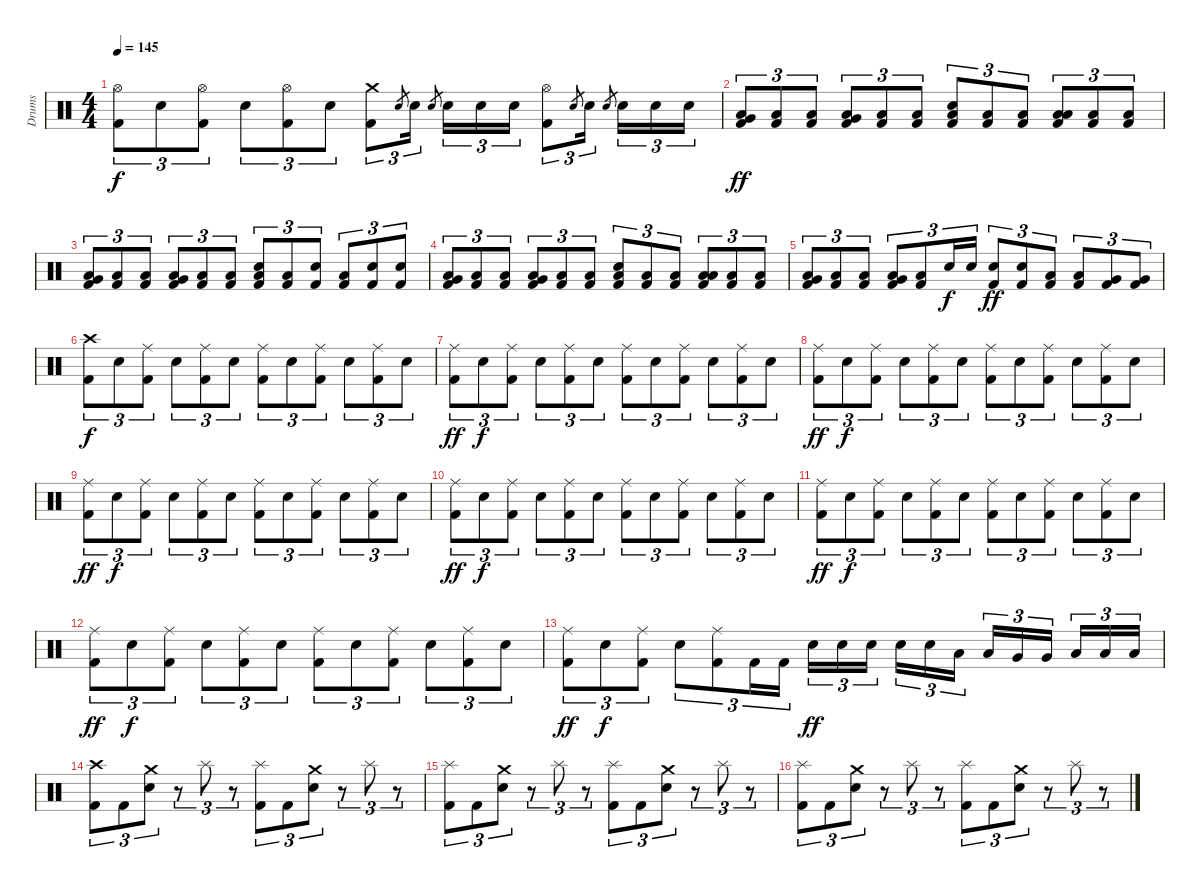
\track ("Drums" "Drums") {instrument percussion}
\staff {score}
\articulation defaults
\ts (4 4)
\tempo 145
\clef neutral
\ks c
("Hi-Hat (open)" "Kick (hit) 2").8{tu (3 2) dy f} "Electric Snare (hit)".8{tu (3 2)} ("Hi-Hat (open)" "Kick (hit) 2").8{tu (3 2)} "Electric Snare (hit)".8{tu (3 2)} ("Hi-Hat (open)" "Kick (hit) 2").8{tu (3 2)} "Electric Snare (hit)".8{tu (3 2)} ("Crash medium (hit)" "Kick (hit) 2").8{tu (3 2)} "Electric Snare (hit)".8{gr} "Electric Snare (hit)".16{tu (3 2)} "Electric Snare (hit)".8{gr beam splitsecondary} "Electric Snare (hit)".16{tu (3 2)} "Electric Snare (hit)".16{tu (3 2)} "Electric Snare (hit)".16{tu (3 2)} ("Hi-Hat (open)" "Kick (hit) 2").8{tu (3 2)} "Electric Snare (hit)".8{gr} "Electric Snare (hit)".16{tu (3 2)} "Electric Snare (hit)".8{gr beam splitsecondary} "Electric Snare (hit)".16{tu (3 2)} "Electric Snare (hit)".16{tu (3 2)} "Electric Snare (hit)".16{tu (3 2)} |
("Low Tom (hit)" "Very Low Tom (hit)" "Kick (hit) 2").8{tu (3 2) dy ff} ("Low Floor Tom (hit)" "Kick (hit) 2").8{tu (3 2)} ("Low Floor Tom (hit)" "Kick (hit) 2").8{tu (3 2)} ("Low Floor Tom (hit)" "Very Low Tom (hit)" "Kick (hit) 2").8{tu (3 2)} ("Low Floor Tom (hit)" "Kick (hit) 2").8{tu (3 2)} ("Low Floor Tom (hit)" "Kick (hit) 2").8{tu (3 2)} ("Low Floor Tom (hit)" "Electric Snare (hit)" "Kick (hit) 2").8{tu (3 2)} ("Low Floor Tom (hit)" "Kick (hit) 2").8{tu (3 2)} ("Low Floor Tom (hit)" "Kick (hit) 2").8{tu (3 2)} ("Low Floor Tom (hit)" "Low Floor Tom (hit)" "Kick (hit) 2").8{tu (3 2)} ("Low Floor Tom (hit)" "Kick (hit) 2").8{tu (3 2)} ("Low Floor Tom (hit)" "Kick (hit) 2").8{tu (3 2)} |
("Low Tom (hit)" "Very Low Tom (hit)" "Kick (hit) 2").8{tu (3 2)} ("Low Floor Tom (hit)" "Kick (hit) 2").8{tu (3 2)} ("Low Floor Tom (hit)" "Kick (hit) 2").8{tu (3 2)} ("Low Floor Tom (hit)" "Very Low Tom (hit)" "Kick (hit) 2").8{tu (3 2)} ("Low Floor Tom (hit)" "Kick (hit) 2").8{tu (3 2)} ("Low Floor Tom (hit)" "Kick (hit) 2").8{tu (3 2)} ("Low Floor Tom (hit)" "Electric Snare (hit)" "Kick (hit) 2").8{tu (3 2)} ("Low Floor Tom (hit)" "Kick (hit) 2").8{tu (3 2)} ("Electric Snare (hit)" "Kick (hit) 2").8{tu (3 2)} ("Low Floor Tom (hit)" "Kick (hit) 2").8{tu (3 2)} ("Electric Snare (hit)" "Kick (hit) 2").8{tu (3 2)} ("Electric Snare (hit)" "Kick (hit) 2").8{tu (3 2)} |
("Low Tom (hit)" "Very Low Tom (hit)" "Kick (hit) 2").8{tu (3 2)} ("Low Floor Tom (hit)" "Kick (hit) 2").8{tu (3 2)} ("Low Floor Tom (hit)" "Kick (hit) 2").8{tu (3 2)} ("Low Floor Tom (hit)" "Very Low Tom (hit)" "Kick (hit) 2").8{tu (3 2)} ("Low Floor Tom (hit)" "Kick (hit) 2").8{tu (3 2)} ("Low Floor Tom (hit)" "Kick (hit) 2").8{tu (3 2)} ("Low Floor Tom (hit)" "Electric Snare (hit)" "Kick (hit) 2").8{tu (3 2)} ("Low Floor Tom (hit)" "Kick (hit) 2").8{tu (3 2)} ("Low Floor Tom (hit)" "Kick (hit) 2").8{tu (3 2)} ("Low Floor Tom (hit)" "Low Floor Tom (hit)" "Kick (hit) 2").8{tu (3 2)} ("Low Floor Tom (hit)" "Kick (hit) 2").8{tu (3 2)} ("Low Floor Tom (hit)" "Kick (hit) 2").8{tu (3 2)} |
("Low Tom (hit)" "Very Low Tom (hit)" "Kick (hit) 2").8{tu (3 2)} ("Low Floor Tom (hit)" "Kick (hit) 2").8{tu (3 2)} ("Low Floor Tom (hit)" "Kick (hit) 2").8{tu (3 2)} ("Low Floor Tom (hit)" "Very Low Tom (hit)" "Kick (hit) 2").8{tu (3 2)} ("Low Floor Tom (hit)" "Kick (hit) 2").8{tu (3 2)} "Electric Snare (hit)".16{tu (3 2) dy f} "Electric Snare (hit)".16{tu (3 2)} ("Electric Snare (hit)" "Kick (hit) 2").8{tu (3 2) dy ff} ("Electric Snare (hit)" "Kick (hit) 2").8{tu (3 2)} ("Low Tom (hit)" "Kick (hit) 2").8{tu (3 2)} ("Low Tom (hit)" "Kick (hit) 2").8{tu (3 2)} ("Very Low Tom (hit)" "Kick (hit) 2").8{tu (3 2)} ("Very Low Tom (hit)" "Kick (hit) 2").8{tu (3 2)} |
("Crash high (hit)" "Kick (hit) 2").8{tu (3 2) dy f} "Electric Snare (hit)".8{tu (3 2)} ("Ride (middle)" "Kick (hit) 2").8{tu (3 2)} "Electric Snare (hit)".8{tu (3 2)} ("Ride (middle)" "Kick (hit) 2").8{tu (3 2)} "Electric Snare (hit)".8{tu (3 2)} ("Ride (middle)" "Kick (hit) 2").8{tu (3 2)} "Electric Snare (hit)".8{tu (3 2)} ("Ride (middle)" "Kick (hit) 2").8{tu (3 2)} "Electric Snare (hit)".8{tu (3 2)} ("Ride (middle)" "Kick (hit) 2").8{tu (3 2)} "Electric Snare (hit)".8{tu (3 2)} |
("Ride (middle)" "Kick (hit) 2").8{tu (3 2) dy ff} "Electric Snare (hit)".8{tu (3 2) dy f} ("Ride (middle)" "Kick (hit) 2").8{tu (3 2)} "Electric Snare (hit)".8{tu (3 2)} ("Ride (middle)" "Kick (hit) 2").8{tu (3 2)} "Electric Snare (hit)".8{tu (3 2)} ("Ride (middle)" "Kick (hit) 2").8{tu (3 2)} "Electric Snare (hit)".8{tu (3 2)} ("Ride (middle)" "Kick (hit) 2").8{tu (3 2)} "Electric Snare (hit)".8{tu (3 2)} ("Ride (middle)" "Kick (hit) 2").8{tu (3 2)} "Electric Snare (hit)".8{tu (3 2)} |
("Ride (middle)" "Kick (hit) 2").8{tu (3 2) dy ff} "Electric Snare (hit)".8{tu (3 2) dy f} ("Ride (middle)" "Kick (hit) 2").8{tu (3 2)} "Electric Snare (hit)".8{tu (3 2)} ("Ride (middle)" "Kick (hit) 2").8{tu (3 2)} "Electric Snare (hit)".8{tu (3 2)} ("Ride (middle)" "Kick (hit) 2").8{tu (3 2)} "Electric Snare (hit)".8{tu (3 2)} ("Ride (middle)" "Kick (hit) 2").8{tu (3 2)} "Electric Snare (hit)".8{tu (3 2)} ("Ride (middle)" "Kick (hit) 2").8{tu (3 2)} "Electric Snare (hit)".8{tu (3 2)} |
("Ride (middle)" "Kick (hit) 2").8{tu (3 2) dy ff} "Electric Snare (hit)".8{tu (3 2) dy f} ("Ride (middle)" "Kick (hit) 2").8{tu (3 2)} "Electric Snare (hit)".8{tu (3 2)} ("Ride (middle)" "Kick (hit) 2").8{tu (3 2)} "Electric Snare (hit)".8{tu (3 2)} ("Ride (middle)" "Kick (hit) 2").8{tu (3 2)} "Electric Snare (hit)".8{tu (3 2)} ("Ride (middle)" "Kick (hit) 2").8{tu (3 2)} "Electric Snare (hit)".8{tu (3 2)} ("Ride (middle)" "Kick (hit) 2").8{tu (3 2)} "Electric Snare (hit)".8{tu (3 2)} |
("Ride (middle)" "Kick (hit) 2").8{tu (3 2) dy ff} "Electric Snare (hit)".8{tu (3 2) dy f} ("Ride (middle)" "Kick (hit) 2").8{tu (3 2)} "Electric Snare (hit)".8{tu (3 2)} ("Ride (middle)" "Kick (hit) 2").8{tu (3 2)} "Electric Snare (hit)".8{tu (3 2)} ("Ride (middle)" "Kick (hit) 2").8{tu (3 2)} "Electric Snare (hit)".8{tu (3 2)} ("Ride (middle)" "Kick (hit) 2").8{tu (3 2)} "Electric Snare (hit)".8{tu (3 2)} ("Ride (middle)" "Kick (hit) 2").8{tu (3 2)} "Electric Snare (hit)".8{tu (3 2)} |
("Ride (middle)" "Kick (hit) 2").8{tu (3 2) dy ff} "Electric Snare (hit)".8{tu (3 2) dy f} ("Ride (middle)" "Kick (hit) 2").8{tu (3 2)} "Electric Snare (hit)".8{tu (3 2)} ("Ride (middle)" "Kick (hit) 2").8{tu (3 2)} "Electric Snare (hit)".8{tu (3 2)} ("Ride (middle)" "Kick (hit) 2").8{tu (3 2)} "Electric Snare (hit)".8{tu (3 2)} ("Ride (middle)" "Kick (hit) 2").8{tu (3 2)} "Electric Snare (hit)".8{tu (3 2)} ("Ride (middle)" "Kick (hit) 2").8{tu (3 2)} "Electric Snare (hit)".8{tu (3 2)} |
("Ride (middle)" "Kick (hit) 2").8{tu (3 2) dy ff} "Electric Snare (hit)".8{tu (3 2) dy f} ("Ride (middle)" "Kick (hit) 2").8{tu (3 2)} "Electric Snare (hit)".8{tu (3 2)} ("Ride (middle)" "Kick (hit) 2").8{tu (3 2)} "Electric Snare (hit)".8{tu (3 2)} ("Ride (middle)" "Kick (hit) 2").8{tu (3 2)} "Electric Snare (hit)".8{tu (3 2)} ("Ride (middle)" "Kick (hit) 2").8{tu (3 2)} "Electric Snare (hit)".8{tu (3 2)} ("Ride (middle)" "Kick (hit) 2").8{tu (3 2)} "Electric Snare (hit)".8{tu (3 2)} |
("Ride (middle)" "Kick (hit) 2").8{tu (3 2) dy ff} "Electric Snare (hit)".8{tu (3 2) dy f} ("Ride (middle)" "Kick (hit) 2").8{tu (3 2)} "Electric Snare (hit)".8{tu (3 2)} ("Ride (middle)" "Kick (hit) 2").8{tu (3 2)} "Kick (hit) 2".16{tu (3 2)} "Kick (hit) 2".16{tu (3 2)} "Electric Snare (hit)".16{tu (3 2) dy ff} "Electric Snare (hit)".16{tu (3 2)} "Electric Snare (hit)".16{tu (3 2) beam splitsecondary} "Electric Snare (hit)".16{tu (3 2)} "Electric Snare (hit)".16{tu (3 2)} "Low Tom (hit)".16{tu (3 2)} "Low Tom (hit)".16{tu (3 2)} "Very Low Tom (hit)".16{tu (3 2)} "Very Low Tom (hit)".16{tu (3 2) beam splitsecondary} "Low Floor Tom (hit)".16{tu (3 2)} "Low Floor Tom (hit)".16{tu (3 2)} "Low Floor Tom (hit)".16{tu (3 2)} |
("Crash high (hit)" "Kick (hit) 2").8{tu (3 2)} "Kick (hit) 2".8{tu (3 2)} ("Crash medium (hit)" "Electric Snare (hit)").8{tu (3 2)} r.8{tu (3 2)} "Splash (hit)".8{tu (3 2)} r.8{tu (3 2)} ("Splash (hit)" "Kick (hit) 2").8{tu (3 2)} "Kick (hit) 2".8{tu (3 2)} ("Crash medium (hit)" "Electric Snare (hit)").8{tu (3 2)} r.8{tu (3 2)} "Splash (hit)".8{tu (3 2)} r.8{tu (3 2)} |
("Splash (hit)" "Kick (hit) 2").8{tu (3 2)} "Kick (hit) 2".8{tu (3 2)} ("Crash medium (hit)" "Electric Snare (hit)").8{tu (3 2)} r.8{tu (3 2)} "Splash (hit)".8{tu (3 2)} r.8{tu (3 2)} ("Splash (hit)" "Kick (hit) 2").8{tu (3 2)} "Kick (hit) 2".8{tu (3 2)} ("Crash medium (hit)" "Electric Snare (hit)").8{tu (3 2)} r.8{tu (3 2)} "Splash (hit)".8{tu (3 2)} r.8{tu (3 2)} |
("Splash (hit)" "Kick (hit) 2").8{tu (3 2)} "Kick (hit) 2".8{tu (3 2)} ("Crash medium (hit)" "Electric Snare (hit)").8{tu (3 2)} r.8{tu (3 2)} "Splash (hit)".8{tu (3 2)} r.8{tu (3 2)} ("Splash (hit)" "Kick (hit) 2").8{tu (3 2)} "Kick (hit) 2".8{tu (3 2)} ("Crash medium (hit)" "Electric Snare (hit)").8{tu (3 2)} r.8{tu (3 2)} "Splash (hit)".8{tu (3 2)} r.8{tu (3 2)}
